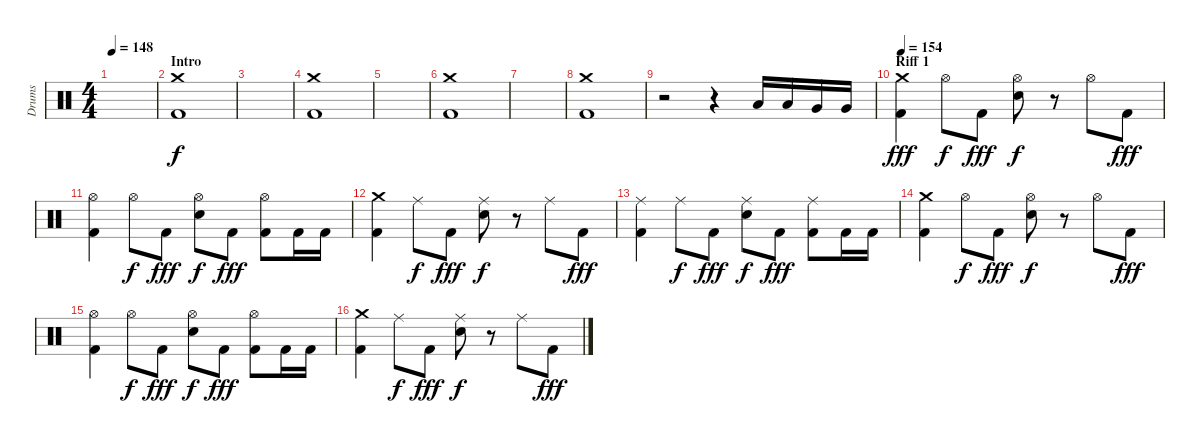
\track ("Drums" "Drums") {instrument percussion}
\staff {score}
\articulation defaults
\ts (4 4)
\tempo 148
\clef neutral
\ks c
|
\section ("" "Intro")
("Crash medium (hit)" "Kick (hit) 2").1 |
|
("Crash medium (hit)" "Kick (hit) 2").1 |
|
("Crash medium (hit)" "Kick (hit) 2").1 |
|
("Crash medium (hit)" "Kick (hit) 2").1 |
r.2 r.4 "Low Tom (hit)".16{dy f} "Low Tom (hit)".16 "Very Low Tom (hit)".16 "Very Low Tom (hit)".16 |
\section ("" "Riff 1")
\tempo 154
("Crash medium (hit)" "Kick (hit) 2").4{dy fff} "Hi-Hat (open)".8{dy f} "Kick (hit) 2".8{dy fff} ("Hi-Hat (open)" "Electric Snare (hit)").8{dy f} r.8 "Hi-Hat (open)".8 "Kick (hit) 2".8{dy fff} |
("Hi-Hat (open)" "Kick (hit) 2").4 "Hi-Hat (open)".8{dy f} "Kick (hit) 2".8{dy fff} ("Hi-Hat (open)" "Electric Snare (hit)").8{dy f} "Kick (hit) 2".8{dy fff} ("Hi-Hat (open)" "Kick (hit) 2").8 "Kick (hit) 2".16 "Kick (hit) 2".16 |
("Crash medium (hit)" "Kick (hit) 2").4 "Ride (middle)".8{dy f} "Kick (hit) 2".8{dy fff} ("Ride (middle)" "Electric Snare (hit)").8{dy f} r.8 "Ride (middle)".8 "Kick (hit) 2".8{dy fff} |
("Ride (middle)" "Kick (hit) 2").4 "Ride (middle)".8{dy f} "Kick (hit) 2".8{dy fff} ("Ride (middle)" "Electric Snare (hit)").8{dy f} "Kick (hit) 2".8{dy fff} ("Ride (middle)" "Kick (hit) 2").8 "Kick (hit) 2".16 "Kick (hit) 2".16 |
("Crash medium (hit)" "Kick (hit) 2").4 "Hi-Hat (open)".8{dy f} "Kick (hit) 2".8{dy fff} ("Hi-Hat (open)" "Electric Snare (hit)").8{dy f} r.8 "Hi-Hat (open)".8 "Kick (hit) 2".8{dy fff} |
("Hi-Hat (open)" "Kick (hit) 2").4 "Hi-Hat (open)".8{dy f} "Kick (hit) 2".8{dy fff} ("Hi-Hat (open)" "Electric Snare (hit)").8{dy f} "Kick (hit) 2".8{dy fff} ("Hi-Hat (open)" "Kick (hit) 2").8 "Kick (hit) 2".16 "Kick (hit) 2".16 |
("Crash medium (hit)" "Kick (hit) 2").4 "Ride (middle)".8{dy f} "Kick (hit) 2".8{dy fff} ("Ride (middle)" "Electric Snare (hit)").8{dy f} r.8 "Ride (middle)".8 "Kick (hit) 2".8{dy fff}
